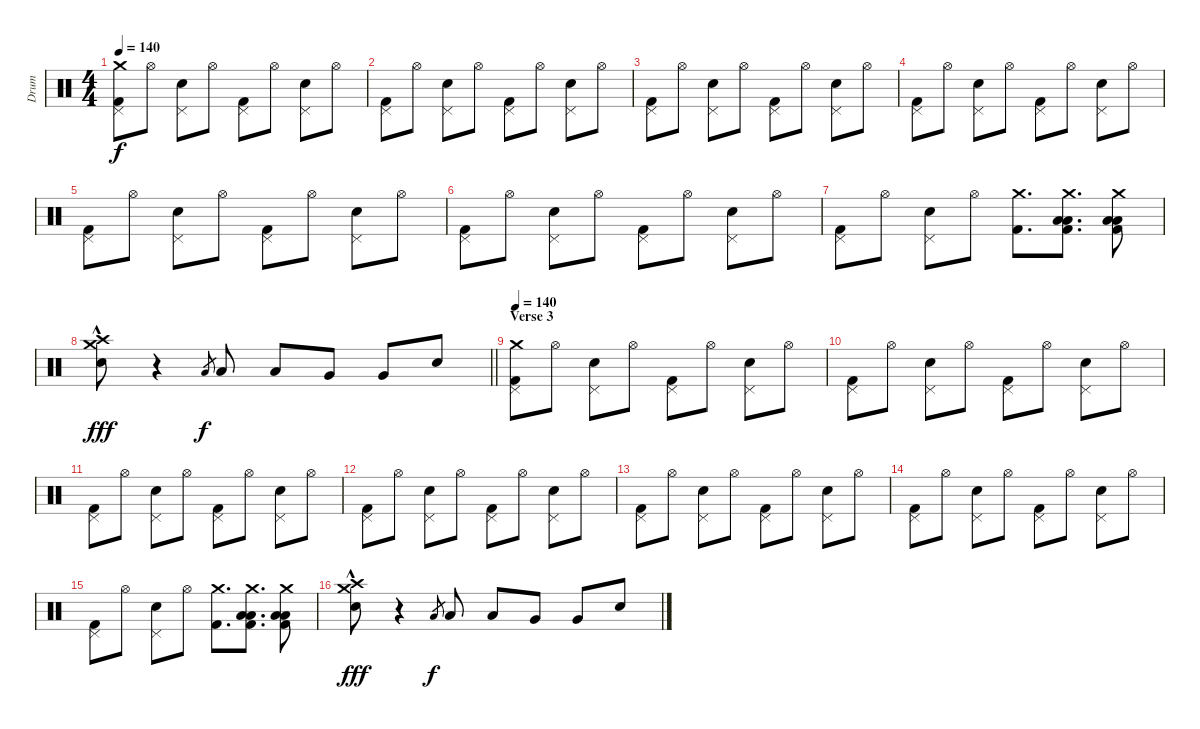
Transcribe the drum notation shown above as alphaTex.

\track ("Drum" "Drum") {instrument percussion}
\staff {score}
\articulation defaults
\ts (4 4)
\tempo 140
\clef neutral
\ks c
("Crash medium (hit)" "Pedal Hi-Hat (hit)" "Kick (hit) 2").8{dy f} "Hi-Hat (open)".8 ("Pedal Hi-Hat (hit)" "Electric Snare (hit)").8 "Hi-Hat (open)".8 ("Pedal Hi-Hat (hit)" "Kick (hit) 2").8 "Hi-Hat (open)".8 ("Pedal Hi-Hat (hit)" "Electric Snare (hit)").8 "Hi-Hat (open)".8 |
("Pedal Hi-Hat (hit)" "Kick (hit) 2").8 "Hi-Hat (open)".8 ("Pedal Hi-Hat (hit)" "Electric Snare (hit)").8 "Hi-Hat (open)".8 ("Pedal Hi-Hat (hit)" "Kick (hit) 2").8 "Hi-Hat (open)".8 ("Pedal Hi-Hat (hit)" "Electric Snare (hit)").8 "Hi-Hat (open)".8 |
("Pedal Hi-Hat (hit)" "Kick (hit) 2").8 "Hi-Hat (open)".8 ("Pedal Hi-Hat (hit)" "Electric Snare (hit)").8 "Hi-Hat (open)".8 ("Pedal Hi-Hat (hit)" "Kick (hit) 2").8 "Hi-Hat (open)".8 ("Pedal Hi-Hat (hit)" "Electric Snare (hit)").8 "Hi-Hat (open)".8 |
("Pedal Hi-Hat (hit)" "Kick (hit) 2").8 "Hi-Hat (open)".8 ("Pedal Hi-Hat (hit)" "Electric Snare (hit)").8 "Hi-Hat (open)".8 ("Pedal Hi-Hat (hit)" "Kick (hit) 2").8 "Hi-Hat (open)".8 ("Pedal Hi-Hat (hit)" "Electric Snare (hit)").8 "Hi-Hat (open)".8 |
("Pedal Hi-Hat (hit)" "Kick (hit) 2").8 "Hi-Hat (open)".8 ("Pedal Hi-Hat (hit)" "Electric Snare (hit)").8 "Hi-Hat (open)".8 ("Pedal Hi-Hat (hit)" "Kick (hit) 2").8 "Hi-Hat (open)".8 ("Pedal Hi-Hat (hit)" "Electric Snare (hit)").8 "Hi-Hat (open)".8 |
("Pedal Hi-Hat (hit)" "Kick (hit) 2").8 "Hi-Hat (open)".8 ("Pedal Hi-Hat (hit)" "Electric Snare (hit)").8 "Hi-Hat (open)".8 ("Pedal Hi-Hat (hit)" "Kick (hit) 2").8 "Hi-Hat (open)".8 ("Pedal Hi-Hat (hit)" "Electric Snare (hit)").8 "Hi-Hat (open)".8 |
("Pedal Hi-Hat (hit)" "Kick (hit) 2").8 "Hi-Hat (open)".8 ("Pedal Hi-Hat (hit)" "Electric Snare (hit)").8 "Hi-Hat (open)".8 ("Crash medium (hit)" "Kick (hit) 2").8{d} ("Crash medium (hit)" "Low Tom (hit)" "Low Tom (hit)" "Kick (hit) 2").8{d} ("Crash medium (hit)" "Low Tom (hit)" "Low Tom (hit)" "Kick (hit) 2").8 |
\barLineRight lightlight
("Crash medium (hit)" "Crash high (hit)" "Electric Snare (hit)"{hac}).8{dy fff} r.4 "Low Tom (hit)".8{gr dy f} "Low Tom (hit)".8 "Low Tom (hit)".8 "Very Low Tom (hit)".8 "Very Low Tom (hit)".8 "Electric Snare (hit)".8 |
\section ("" "Verse 3")
\tempo 140
("Crash medium (hit)" "Pedal Hi-Hat (hit)" "Kick (hit) 2").8 "Hi-Hat (open)".8 ("Pedal Hi-Hat (hit)" "Electric Snare (hit)").8 "Hi-Hat (open)".8 ("Pedal Hi-Hat (hit)" "Kick (hit) 2").8 "Hi-Hat (open)".8 ("Pedal Hi-Hat (hit)" "Electric Snare (hit)").8 "Hi-Hat (open)".8 |
("Pedal Hi-Hat (hit)" "Kick (hit) 2").8 "Hi-Hat (open)".8 ("Pedal Hi-Hat (hit)" "Electric Snare (hit)").8 "Hi-Hat (open)".8 ("Pedal Hi-Hat (hit)" "Kick (hit) 2").8 "Hi-Hat (open)".8 ("Pedal Hi-Hat (hit)" "Electric Snare (hit)").8 "Hi-Hat (open)".8 |
("Pedal Hi-Hat (hit)" "Kick (hit) 2").8 "Hi-Hat (open)".8 ("Pedal Hi-Hat (hit)" "Electric Snare (hit)").8 "Hi-Hat (open)".8 ("Pedal Hi-Hat (hit)" "Kick (hit) 2").8 "Hi-Hat (open)".8 ("Pedal Hi-Hat (hit)" "Electric Snare (hit)").8 "Hi-Hat (open)".8 |
("Pedal Hi-Hat (hit)" "Kick (hit) 2").8 "Hi-Hat (open)".8 ("Pedal Hi-Hat (hit)" "Electric Snare (hit)").8 "Hi-Hat (open)".8 ("Pedal Hi-Hat (hit)" "Kick (hit) 2").8 "Hi-Hat (open)".8 ("Pedal Hi-Hat (hit)" "Electric Snare (hit)").8 "Hi-Hat (open)".8 |
("Pedal Hi-Hat (hit)" "Kick (hit) 2").8 "Hi-Hat (open)".8 ("Pedal Hi-Hat (hit)" "Electric Snare (hit)").8 "Hi-Hat (open)".8 ("Pedal Hi-Hat (hit)" "Kick (hit) 2").8 "Hi-Hat (open)".8 ("Pedal Hi-Hat (hit)" "Electric Snare (hit)").8 "Hi-Hat (open)".8 |
("Pedal Hi-Hat (hit)" "Kick (hit) 2").8 "Hi-Hat (open)".8 ("Pedal Hi-Hat (hit)" "Electric Snare (hit)").8 "Hi-Hat (open)".8 ("Pedal Hi-Hat (hit)" "Kick (hit) 2").8 "Hi-Hat (open)".8 ("Pedal Hi-Hat (hit)" "Electric Snare (hit)").8 "Hi-Hat (open)".8 |
("Pedal Hi-Hat (hit)" "Kick (hit) 2").8 "Hi-Hat (open)".8 ("Pedal Hi-Hat (hit)" "Electric Snare (hit)").8 "Hi-Hat (open)".8 ("Crash medium (hit)" "Kick (hit) 2").8{d} ("Crash medium (hit)" "Low Tom (hit)" "Low Tom (hit)" "Kick (hit) 2").8{d} ("Crash medium (hit)" "Low Tom (hit)" "Low Tom (hit)" "Kick (hit) 2").8 |
("Crash medium (hit)" "Crash high (hit)" "Electric Snare (hit)"{hac}).8{dy fff} r.4 "Low Tom (hit)".8{gr dy f} "Low Tom (hit)".8 "Low Tom (hit)".8 "Very Low Tom (hit)".8 "Very Low Tom (hit)".8 "Electric Snare (hit)".8
